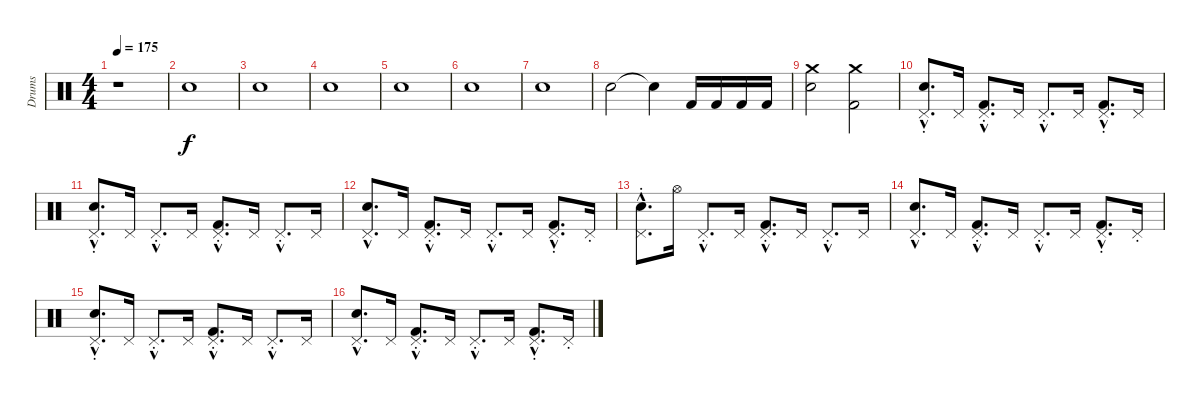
\track ("Drums" "Drums") {instrument percussion}
\staff {score}
\articulation defaults
\ts (4 4)
\tempo 175
\clef neutral
\ks c
r.1{dy f} |
"Hand Clap (hit)".1 |
"Hand Clap (hit)".1 |
"Hand Clap (hit)".1 |
"Hand Clap (hit)".1 |
"Hand Clap (hit)".1 |
"Hand Clap (hit)".1 |
"Hand Clap (hit)".2 "Electric Snare (hit)"{t}.4 "Kick (hit) 2".16 "Kick (hit) 2".16 "Kick (hit) 2".16 "Kick (hit) 2".16 |
("Electric Snare (hit)" "Crash medium (hit)").2 ("Crash medium (hit)" "Kick (hit) 2").2 |
("Electric Snare (hit)"{hac} "Pedal Hi-Hat (hit)"{hac st}).8{d} "Pedal Hi-Hat (hit)".16 ("Pedal Hi-Hat (hit)"{hac st} "Kick (hit) 2"{hac}).8{d} "Pedal Hi-Hat (hit)".16 "Pedal Hi-Hat (hit)"{hac st}.8{d} "Pedal Hi-Hat (hit)".16 ("Kick (hit) 2"{hac} "Pedal Hi-Hat (hit)"{hac st}).8{d} "Pedal Hi-Hat (hit)".16 |
("Electric Snare (hit)"{hac} "Pedal Hi-Hat (hit)"{hac st}).8{d} "Pedal Hi-Hat (hit)".16 "Pedal Hi-Hat (hit)"{hac st}.8{d} "Pedal Hi-Hat (hit)".16 ("Pedal Hi-Hat (hit)"{hac st} "Kick (hit) 2"{hac}).8{d} "Pedal Hi-Hat (hit)".16 "Pedal Hi-Hat (hit)"{hac st}.8{d} "Pedal Hi-Hat (hit)".16 |
("Electric Snare (hit)"{hac} "Pedal Hi-Hat (hit)"{hac}).8{d} "Pedal Hi-Hat (hit)".16 ("Pedal Hi-Hat (hit)"{hac st} "Kick (hit) 2"{hac}).8{d} "Pedal Hi-Hat (hit)".16 "Pedal Hi-Hat (hit)"{hac st}.8{d} "Pedal Hi-Hat (hit)".16 ("Kick (hit) 2"{hac} "Pedal Hi-Hat (hit)"{hac st}).8{d} "Pedal Hi-Hat (hit)"{st}.16 |
("Electric Snare (hit)"{hac} "Pedal Hi-Hat (hit)"{hac st}).8{d} "Hi-Hat (open)".16 "Pedal Hi-Hat (hit)"{hac st}.8{d} "Pedal Hi-Hat (hit)".16 ("Pedal Hi-Hat (hit)"{hac st} "Kick (hit) 2"{hac}).8{d} "Pedal Hi-Hat (hit)".16 "Pedal Hi-Hat (hit)"{hac st}.8{d} "Pedal Hi-Hat (hit)".16 |
("Electric Snare (hit)"{hac} "Pedal Hi-Hat (hit)"{hac}).8{d} "Pedal Hi-Hat (hit)".16 ("Pedal Hi-Hat (hit)"{hac st} "Kick (hit) 2"{hac}).8{d} "Pedal Hi-Hat (hit)".16 "Pedal Hi-Hat (hit)"{hac st}.8{d} "Pedal Hi-Hat (hit)".16 ("Kick (hit) 2"{hac} "Pedal Hi-Hat (hit)"{hac st}).8{d} "Pedal Hi-Hat (hit)"{st}.16 |
("Electric Snare (hit)"{hac} "Pedal Hi-Hat (hit)"{hac st}).8{d} "Pedal Hi-Hat (hit)".16 "Pedal Hi-Hat (hit)"{hac st}.8{d} "Pedal Hi-Hat (hit)".16 ("Pedal Hi-Hat (hit)"{hac st} "Kick (hit) 2"{hac}).8{d} "Pedal Hi-Hat (hit)".16 "Pedal Hi-Hat (hit)"{hac st}.8{d} "Pedal Hi-Hat (hit)".16 |
("Electric Snare (hit)"{hac} "Pedal Hi-Hat (hit)"{hac}).8{d} "Pedal Hi-Hat (hit)".16 ("Pedal Hi-Hat (hit)"{hac st} "Kick (hit) 2"{hac}).8{d} "Pedal Hi-Hat (hit)".16 "Pedal Hi-Hat (hit)"{hac st}.8{d} "Pedal Hi-Hat (hit)".16 ("Kick (hit) 2"{hac} "Pedal Hi-Hat (hit)"{hac st}).8{d} "Pedal Hi-Hat (hit)"{st}.16
